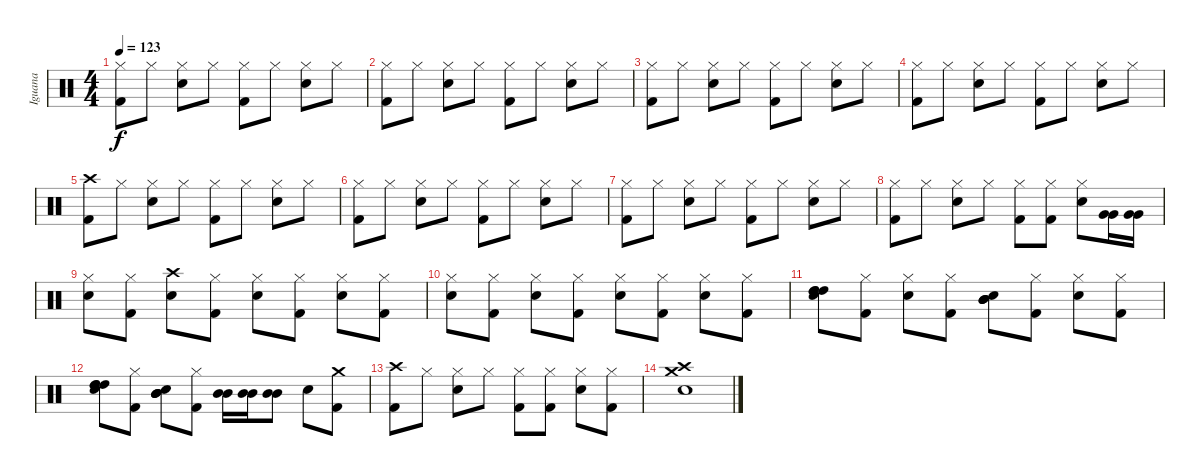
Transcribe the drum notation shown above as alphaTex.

\track ("Iguana" "Iguana") {instrument percussion}
\staff {score}
\articulation defaults
\ts (4 4)
\tempo 123
\clef neutral
\ks c
("Hi-Hat (closed)" "Kick (hit) 2").8{dy f} "Hi-Hat (closed)".8 ("Hi-Hat (closed)" "Snare (hit) 2").8 "Hi-Hat (closed)".8 ("Hi-Hat (closed)" "Kick (hit) 2").8 "Hi-Hat (closed)".8 ("Hi-Hat (closed)" "Snare (hit) 2").8 "Hi-Hat (closed)".8 |
("Hi-Hat (closed)" "Kick (hit) 2").8 "Hi-Hat (closed)".8 ("Hi-Hat (closed)" "Snare (hit) 2").8 "Hi-Hat (closed)".8 ("Hi-Hat (closed)" "Kick (hit) 2").8 "Hi-Hat (closed)".8 ("Hi-Hat (closed)" "Snare (hit) 2").8 "Hi-Hat (closed)".8 |
("Hi-Hat (closed)" "Kick (hit) 2").8 "Hi-Hat (closed)".8 ("Hi-Hat (closed)" "Snare (hit) 2").8 "Hi-Hat (closed)".8 ("Hi-Hat (closed)" "Kick (hit) 2").8 "Hi-Hat (closed)".8 ("Hi-Hat (closed)" "Snare (hit) 2").8 "Hi-Hat (closed)".8 |
("Hi-Hat (closed)" "Kick (hit) 2").8 "Hi-Hat (closed)".8 ("Hi-Hat (closed)" "Snare (hit) 2").8 "Hi-Hat (closed)".8 ("Hi-Hat (closed)" "Kick (hit) 2").8 "Hi-Hat (closed)".8 ("Hi-Hat (closed)" "Snare (hit) 2").8 "Hi-Hat (closed)".8 |
("Crash high (hit)" "Kick (hit) 2").8 "Hi-Hat (closed)".8 ("Hi-Hat (closed)" "Snare (hit) 2").8 "Hi-Hat (closed)".8 ("Hi-Hat (closed)" "Kick (hit) 2").8 "Hi-Hat (closed)".8 ("Hi-Hat (closed)" "Snare (hit) 2").8 "Hi-Hat (closed)".8 |
("Hi-Hat (closed)" "Kick (hit) 2").8 "Hi-Hat (closed)".8 ("Hi-Hat (closed)" "Snare (hit) 2").8 "Hi-Hat (closed)".8 ("Hi-Hat (closed)" "Kick (hit) 2").8 "Hi-Hat (closed)".8 ("Hi-Hat (closed)" "Snare (hit) 2").8 "Hi-Hat (closed)".8 |
("Hi-Hat (closed)" "Kick (hit) 2").8 "Hi-Hat (closed)".8 ("Hi-Hat (closed)" "Snare (hit) 2").8 "Hi-Hat (closed)".8 ("Hi-Hat (closed)" "Kick (hit) 2").8 "Hi-Hat (closed)".8 ("Hi-Hat (closed)" "Snare (hit) 2").8 "Hi-Hat (closed)".8 |
("Hi-Hat (closed)" "Kick (hit) 2").8 "Hi-Hat (closed)".8 ("Hi-Hat (closed)" "Snare (hit) 2").8 "Hi-Hat (closed)".8 ("Hi-Hat (closed)" "Kick (hit) 2").8 ("Hi-Hat (closed)" "Kick (hit) 2").8 ("Hi-Hat (closed)" "Snare (hit) 2").8 ("Very Low Tom (hit)" "Very Low Tom (hit)").16 ("Very Low Tom (hit)" "Very Low Tom (hit)").16 |
("Hi-Hat (closed)" "Snare (hit) 2").8 ("Hi-Hat (closed)" "Kick (hit) 2").8 ("Crash high (hit)" "Snare (hit) 2").8 ("Hi-Hat (closed)" "Kick (hit) 2").8 ("Hi-Hat (closed)" "Snare (hit) 2").8 ("Hi-Hat (closed)" "Kick (hit) 2").8 ("Hi-Hat (closed)" "Snare (hit) 2").8 ("Hi-Hat (closed)" "Kick (hit) 2").8 |
("Hi-Hat (closed)" "Snare (hit) 2").8 ("Hi-Hat (closed)" "Kick (hit) 2").8 ("Hi-Hat (closed)" "Snare (hit) 2").8 ("Hi-Hat (closed)" "Kick (hit) 2").8 ("Hi-Hat (closed)" "Snare (hit) 2").8 ("Hi-Hat (closed)" "Kick (hit) 2").8 ("Hi-Hat (closed)" "Snare (hit) 2").8 ("Hi-Hat (closed)" "Kick (hit) 2").8 |
("High Tom (hit)" "High Tom (hit)" "High Tom (hit)" "Snare (hit) 2").8 ("Hi-Hat (closed)" "Kick (hit) 2").8 ("Hi-Hat (closed)" "Snare (hit) 2").8 ("Hi-Hat (closed)" "Kick (hit) 2").8 ("Mid Tom (hit)" "Mid Tom (hit)" "Mid Tom (hit)" "Snare (hit) 2").8 ("Hi-Hat (closed)" "Kick (hit) 2").8 ("Hi-Hat (closed)" "Snare (hit) 2").8 ("Hi-Hat (closed)" "Kick (hit) 2").8 |
("High Tom (hit)" "High Tom (hit)" "High Tom (hit)" "Snare (hit) 2").8 ("Hi-Hat (closed)" "Kick (hit) 2").8 ("Mid Tom (hit)" "Mid Tom (hit)" "Mid Tom (hit)" "Snare (hit) 2").8 ("Hi-Hat (closed)" "Kick (hit) 2").8 ("Mid Tom (hit)" "Mid Tom (hit)").16 ("Mid Tom (hit)" "Mid Tom (hit)").16 ("Mid Tom (hit)" "Mid Tom (hit)").8 "Snare (hit) 2".8 ("Crash medium (hit)" "Kick (hit) 2").8 |
("Crash high (hit)" "Kick (hit) 2").8 "Hi-Hat (closed)".8 ("Hi-Hat (closed)" "Snare (hit) 2").8 "Hi-Hat (closed)".8 ("Hi-Hat (closed)" "Kick (hit) 2").8 ("Hi-Hat (closed)" "Kick (hit) 2").8 ("Hi-Hat (closed)" "Snare (hit) 2").8 ("Hi-Hat (closed)" "Kick (hit) 2").8 |
("Crash medium (hit)" "Crash high (hit)" "Snare (hit) 2").1
